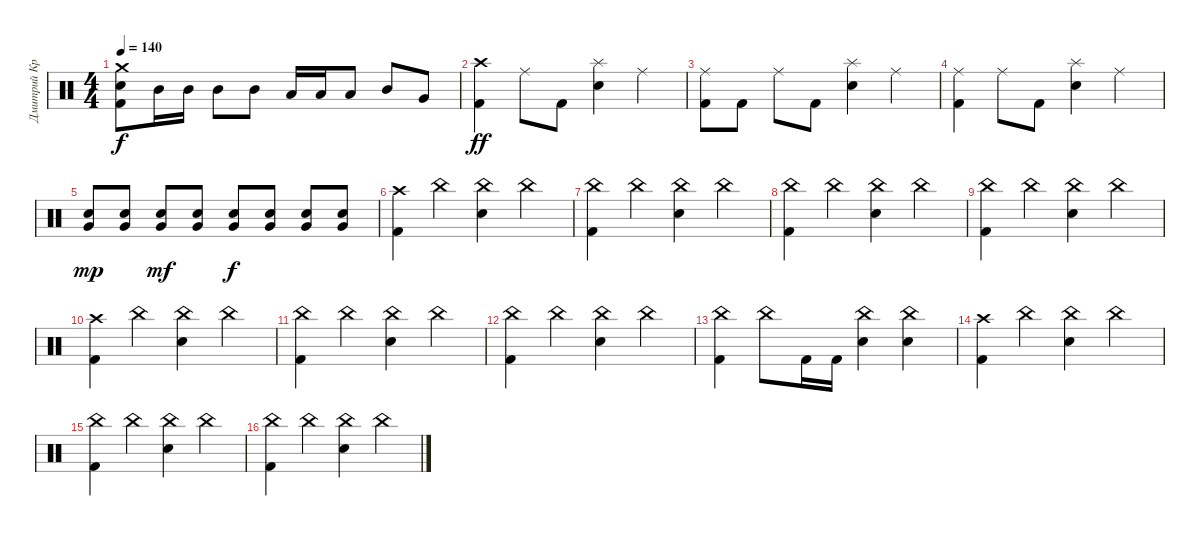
\track ("Дмитрий Кривенков" "Дмитрий Кр") {instrument percussion}
\staff {score}
\articulation defaults
\ts (4 4)
\tempo 140
\clef neutral
\ks c
("Crash medium (hit)" "Electric Snare (hit)" "Kick (hit) 2").8{dy f} "Mid Tom (hit)".16 "Mid Tom (hit)".16 "Mid Tom (hit)".8 "Mid Tom (hit)".8 "Low Tom (hit)".16 "Low Tom (hit)".16 "Low Tom (hit)".8 "Mid Tom (hit)".8 "Very Low Tom (hit)".8 |
("Crash high (hit)" "Kick (hit) 2").4{dy ff} "Ride (middle)".8 "Kick (hit) 2".8 ("Splash (hit)" "Electric Snare (hit)").4 "Ride (middle)".4 |
("Ride (middle)" "Kick (hit) 2").8 "Kick (hit) 2".8 "Ride (middle)".8 "Kick (hit) 2".8 ("Splash (hit)" "Electric Snare (hit)").4 "Ride (middle)".4 |
("Ride (middle)" "Kick (hit) 2").4 "Ride (middle)".8 "Kick (hit) 2".8 ("Splash (hit)" "Electric Snare (hit)").4 "Ride (middle)".4 |
("Electric Snare (hit)" "Very Low Tom (hit)").8{dy mp} ("Electric Snare (hit)" "Very Low Tom (hit)").8 ("Electric Snare (hit)" "Very Low Tom (hit)").8{dy mf} ("Electric Snare (hit)" "Very Low Tom (hit)").8 ("Electric Snare (hit)" "Very Low Tom (hit)").8{dy f} ("Electric Snare (hit)" "Very Low Tom (hit)").8 ("Electric Snare (hit)" "Very Low Tom (hit)").8 ("Electric Snare (hit)" "Very Low Tom (hit)").8 |
("Crash high (hit)" "Kick (hit) 2").4 "China (hit)".4 ("China (hit)" "Electric Snare (hit)").4 "China (hit)".4 |
("China (hit)" "Kick (hit) 2").4 "China (hit)".4 ("China (hit)" "Electric Snare (hit)").4 "China (hit)".4 |
("China (hit)" "Kick (hit) 2").4 "China (hit)".4 ("China (hit)" "Electric Snare (hit)").4 "China (hit)".4 |
("China (hit)" "Kick (hit) 2").4 "China (hit)".4 ("China (hit)" "Electric Snare (hit)").4 "China (hit)".4 |
("Crash high (hit)" "Kick (hit) 2").4 "China (hit)".4 ("China (hit)" "Electric Snare (hit)").4 "China (hit)".4 |
("China (hit)" "Kick (hit) 2").4 "China (hit)".4 ("China (hit)" "Electric Snare (hit)").4 "China (hit)".4 |
("China (hit)" "Kick (hit) 2").4 "China (hit)".4 ("China (hit)" "Electric Snare (hit)").4 "China (hit)".4 |
("China (hit)" "Kick (hit) 2").4 "China (hit)".8 "Kick (hit) 2".16 "Kick (hit) 2".16 ("China (hit)" "Electric Snare (hit)").4 ("China (hit)" "Electric Snare (hit)").4 |
("Crash high (hit)" "Kick (hit) 2").4 "China (hit)".4 ("China (hit)" "Electric Snare (hit)").4 "China (hit)".4 |
("China (hit)" "Kick (hit) 2").4 "China (hit)".4 ("China (hit)" "Electric Snare (hit)").4 "China (hit)".4 |
("China (hit)" "Kick (hit) 2").4 "China (hit)".4 ("China (hit)" "Electric Snare (hit)").4 "China (hit)".4
